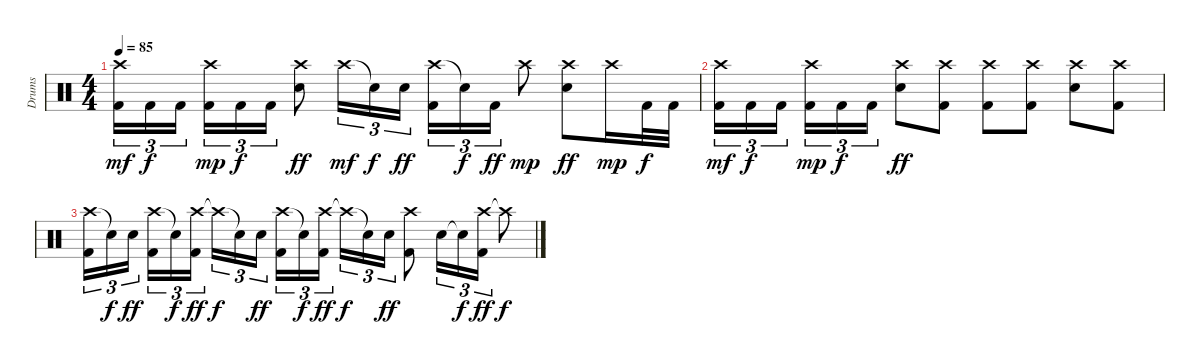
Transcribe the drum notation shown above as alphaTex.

\track ("Drums" "Drums") {instrument percussion}
\staff {score}
\articulation defaults
\ts (4 4)
\tempo 85
\clef neutral
\ks c
("Crash high (hit)" "Kick (hit) 2").16{tu (3 2) dy mf} "Kick (hit) 2".16{tu (3 2) dy f} "Kick (hit) 2".16{tu (3 2) beam splitsecondary} ("Crash high (hit)" "Kick (hit) 2").16{tu (3 2) dy mp} "Kick (hit) 2".16{tu (3 2) dy f} "Kick (hit) 2".16{tu (3 2)} ("Crash high (hit)" "Snare (hit) 2").8{dy ff} "Crash high (hit)".16{tu (3 2) dy mf} "Snare (hit)"{t}.16{tu (3 2) dy f} "Snare (hit) 2".16{tu (3 2) dy ff} ("Crash high (hit)" "Kick (hit) 2").16{tu (3 2)} "Snare (hit)"{t}.16{tu (3 2) dy f} "Kick (hit) 2".16{tu (3 2) dy ff} "Crash high (hit)".8{dy mp} ("Crash high (hit)" "Snare (hit) 2").8{dy ff} "Crash high (hit)".16{dy mp} "Kick (hit) 2".32{dy f} "Kick (hit) 2".32 |
("Crash high (hit)" "Kick (hit) 2").16{tu (3 2) dy mf} "Kick (hit) 2".16{tu (3 2) dy f} "Kick (hit) 2".16{tu (3 2) beam splitsecondary} ("Crash high (hit)" "Kick (hit) 2").16{tu (3 2) dy mp} "Kick (hit) 2".16{tu (3 2) dy f} "Kick (hit) 2".16{tu (3 2)} ("Crash high (hit)" "Snare (hit) 2").8{dy ff} ("Crash high (hit)" "Kick (hit) 2").8 ("Crash high (hit)" "Kick (hit) 2").8 ("Crash high (hit)" "Kick (hit) 2").8 ("Crash high (hit)" "Snare (hit) 2").8 ("Crash high (hit)" "Kick (hit) 2").8 |
("Crash high (hit)" "Kick (hit) 2").16{tu (3 2)} "Snare (hit)"{t}.16{tu (3 2) dy f} "Snare (hit) 2".16{tu (3 2) dy ff beam splitsecondary} ("Crash high (hit)" "Kick (hit) 2").16{tu (3 2)} "Snare (hit)"{t}.16{tu (3 2) dy f} ("Crash high (hit)" "Kick (hit) 2").16{tu (3 2) dy ff} "Crash high (hit)"{t}.16{tu (3 2) dy f} "Snare (hit)"{t}.16{tu (3 2)} "Snare (hit) 2".16{tu (3 2) dy ff beam splitsecondary} ("Crash high (hit)" "Kick (hit) 2").16{tu (3 2)} "Snare (hit)"{t}.16{tu (3 2) dy f} ("Crash high (hit)" "Kick (hit) 2").16{tu (3 2) dy ff} "Crash high (hit)"{t}.16{tu (3 2) dy f} "Snare (hit)"{t}.16{tu (3 2)} "Snare (hit) 2".16{tu (3 2) dy ff} ("Crash high (hit)" "Kick (hit) 2").8 "Snare (hit) 2".16{tu (3 2)} "Snare (hit)"{t}.16{tu (3 2) dy f} ("Crash high (hit)" "Kick (hit) 2").16{tu (3 2) dy ff} "Crash high (hit)"{t}.8{dy f}
